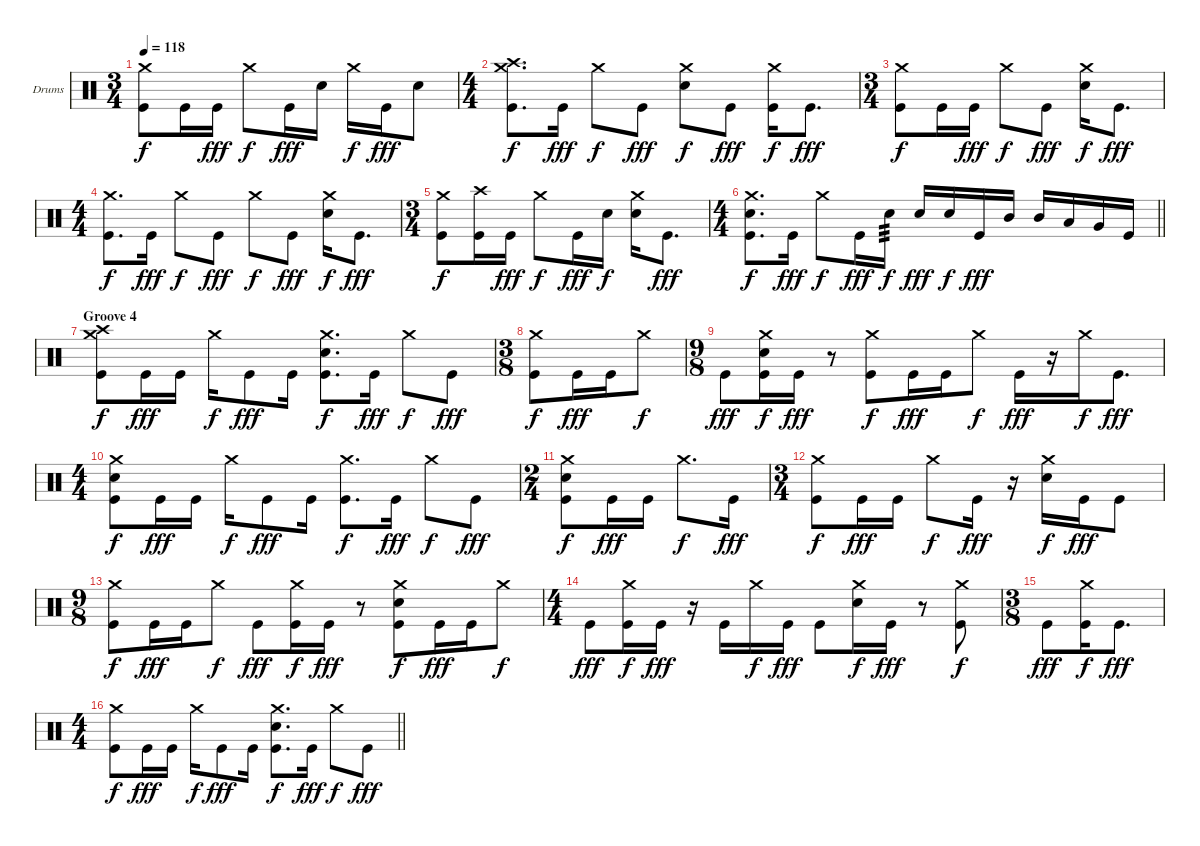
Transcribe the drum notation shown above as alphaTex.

\bracketExtendMode groupsimilarinstruments
\firstSystemTrackNameOrientation horizontal
\otherSystemsTrackNameOrientation horizontal
\track ("Drumkit" "Drums") {instrument percussion}
\staff {score}
\articulation defaults
\ts (3 4)
\beaming (8 2 2 2)
\tempo 118
\clef neutral
\ks c
("Crash medium (hit)" "Kick (hit)").8{dy f} "Kick (hit)".16 "Kick (hit)".16{dy fff} "Crash medium (hit)".8{dy f} "Kick (hit)".16{dy fff} "Snare (hit) 2".16 "Crash medium (hit)".16{dy f} "Kick (hit)".16{dy fff} "Snare (hit) 2".8 |
\ts (4 4)
\beaming (8 2 2 2 2)
("Crash medium (hit)" "Crash high (hit)" "Kick (hit)").8{d dy f} "Kick (hit)".16{dy fff} "Crash medium (hit)".8{dy f} "Kick (hit)".8{dy fff} ("Crash medium (hit)" "Snare (hit) 2").8{dy f} "Kick (hit)".8{dy fff} ("Crash medium (hit)" "Kick (hit)").16{dy f} "Kick (hit)".8{d dy fff} |
\ts (3 4)
\beaming (8 2 2 2 2)
("Crash medium (hit)" "Kick (hit)").8{dy f} "Kick (hit)".16 "Kick (hit)".16{dy fff} "Crash medium (hit)".8{dy f} "Kick (hit)".8{dy fff} ("Crash medium (hit)" "Snare (hit) 2").16{dy f} "Kick (hit)".8{d dy fff} |
\ts (4 4)
\beaming (8 2 2 2 2)
("Crash medium (hit)" "Kick (hit)").8{d dy f} "Kick (hit)".16{dy fff} "Crash medium (hit)".8{dy f} "Kick (hit)".8{dy fff} "Crash medium (hit)".8{dy f} "Kick (hit)".8{dy fff} ("Crash medium (hit)" "Snare (hit) 2").16{dy f} "Kick (hit)".8{d dy fff} |
\ts (3 4)
\beaming (8 2 2 2)
("Crash medium (hit)" "Kick (hit)").8{dy f} ("Crash high (hit)" "Kick (hit)").16 "Kick (hit)".16{dy fff} "Crash medium (hit)".8{dy f} "Kick (hit)".16{dy fff} "Snare (hit) 2".16{dy f} ("Crash medium (hit)" "Snare (hit) 2").16 "Kick (hit)".8{d dy fff} |
\ts (4 4)
\beaming (8 2 2 2 2)
\barLineRight lightlight
("Crash medium (hit)" "Snare (hit) 2" "Kick (hit)").8{d dy f} "Kick (hit)".16{dy fff} "Crash medium (hit)".8{dy f} "Kick (hit)".16{dy fff} "Snare (hit) 2".16{tp 3 dy f} "Snare (hit) 2".16{dy fff} "Snare (hit) 2".16{dy f} "Kick (hit)".16{dy fff} "Mid Tom (hit)".16 "Mid Tom (hit)".16 "Low Tom (hit)".16 "Very Low Tom (hit)".16 "Kick (hit)".16 |
\section ("" "Groove 4")
("Crash medium (hit)" "Crash high (hit)" "Kick (hit)").8{dy f} "Kick (hit)".16{dy fff} "Kick (hit)".16 "Crash medium (hit)".16{dy f} "Kick (hit)".8{dy fff} "Kick (hit)".16 ("Crash medium (hit)" "Snare (hit) 2" "Kick (hit)").8{d dy f} "Kick (hit)".16{dy fff} "Crash medium (hit)".8{dy f} "Kick (hit)".8{dy fff} |
\ts (3 8)
\beaming (8 3)
("Crash medium (hit)" "Kick (hit)").8{dy f} "Kick (hit)".16{dy fff} "Kick (hit)".16 "Crash medium (hit)".8{dy f} |
\ts (9 8)
\beaming (8 3 3 3)
"Kick (hit)".8{dy fff} ("Crash medium (hit)" "Snare (hit) 2" "Kick (hit)").16{dy f} "Kick (hit)".16{dy fff} r.8 ("Crash medium (hit)" "Kick (hit)").8{dy f} "Kick (hit)".16{dy fff} "Kick (hit)".16 "Crash medium (hit)".8{dy f} "Kick (hit)".16{dy fff} r.16 "Crash medium (hit)".16{dy f} "Kick (hit)".8{d dy fff} |
\ts (4 4)
\beaming (8 2 2 2 2)
("Crash medium (hit)" "Snare (hit) 2" "Kick (hit)").8{dy f} "Kick (hit)".16{dy fff} "Kick (hit)".16 "Crash medium (hit)".16{dy f} "Kick (hit)".8{dy fff} "Kick (hit)".16 ("Crash medium (hit)" "Kick (hit)").8{d dy f} "Kick (hit)".16{dy fff} "Crash medium (hit)".8{dy f} "Kick (hit)".8{dy fff} |
\ts (2 4)
\beaming (8 2 2)
("Crash medium (hit)" "Snare (hit) 2" "Kick (hit)").8{dy f} "Kick (hit)".16{dy fff} "Kick (hit)".16 "Crash medium (hit)".8{d dy f} "Kick (hit)".16{dy fff} |
\ts (3 4)
\beaming (8 2 2 2)
("Crash medium (hit)" "Kick (hit)").8{dy f} "Kick (hit)".16{dy fff} "Kick (hit)".16 "Crash medium (hit)".8{dy f} "Kick (hit)".16{dy fff} r.16 ("Crash medium (hit)" "Snare (hit) 2").16{dy f} "Kick (hit)".16{dy fff} "Kick (hit)".8 |
\ts (9 8)
\beaming (8 3 3 3)
("Crash medium (hit)" "Kick (hit)").8{dy f} "Kick (hit)".16{dy fff} "Kick (hit)".16 "Crash medium (hit)".8{dy f} "Kick (hit)".8{dy fff} ("Crash medium (hit)" "Kick (hit)").16{dy f} "Kick (hit)".16{dy fff} r.8 ("Crash medium (hit)" "Snare (hit) 2" "Kick (hit)").8{dy f} "Kick (hit)".16{dy fff} "Kick (hit)".16 "Crash medium (hit)".8{dy f} |
\ts (4 4)
\beaming (8 2 2 2 2)
"Kick (hit)".8{dy fff} ("Crash medium (hit)" "Kick (hit)").16{dy f} "Kick (hit)".16{dy fff} r.16 "Kick (hit)".16 "Crash medium (hit)".16{dy f} "Kick (hit)".16{dy fff} "Kick (hit)".8 ("Crash medium (hit)" "Snare (hit) 2").16{dy f} "Kick (hit)".16{dy fff} r.8 ("Crash medium (hit)" "Kick (hit)").8{dy f} |
\ts (3 8)
\beaming (8 3)
"Kick (hit)".8{dy fff} ("Crash medium (hit)" "Kick (hit)").16{dy f} "Kick (hit)".8{d dy fff} |
\ts (4 4)
\beaming (8 2 2 2 2)
\barLineRight lightlight
("Crash medium (hit)" "Kick (hit)").8{dy f} "Kick (hit)".16{dy fff} "Kick (hit)".16 "Crash medium (hit)".16{dy f} "Kick (hit)".8{dy fff} "Kick (hit)".16 ("Crash medium (hit)" "Snare (hit) 2" "Kick (hit)").8{d dy f} "Kick (hit)".16{dy fff} "Crash medium (hit)".8{dy f} "Kick (hit)".8{dy fff}
